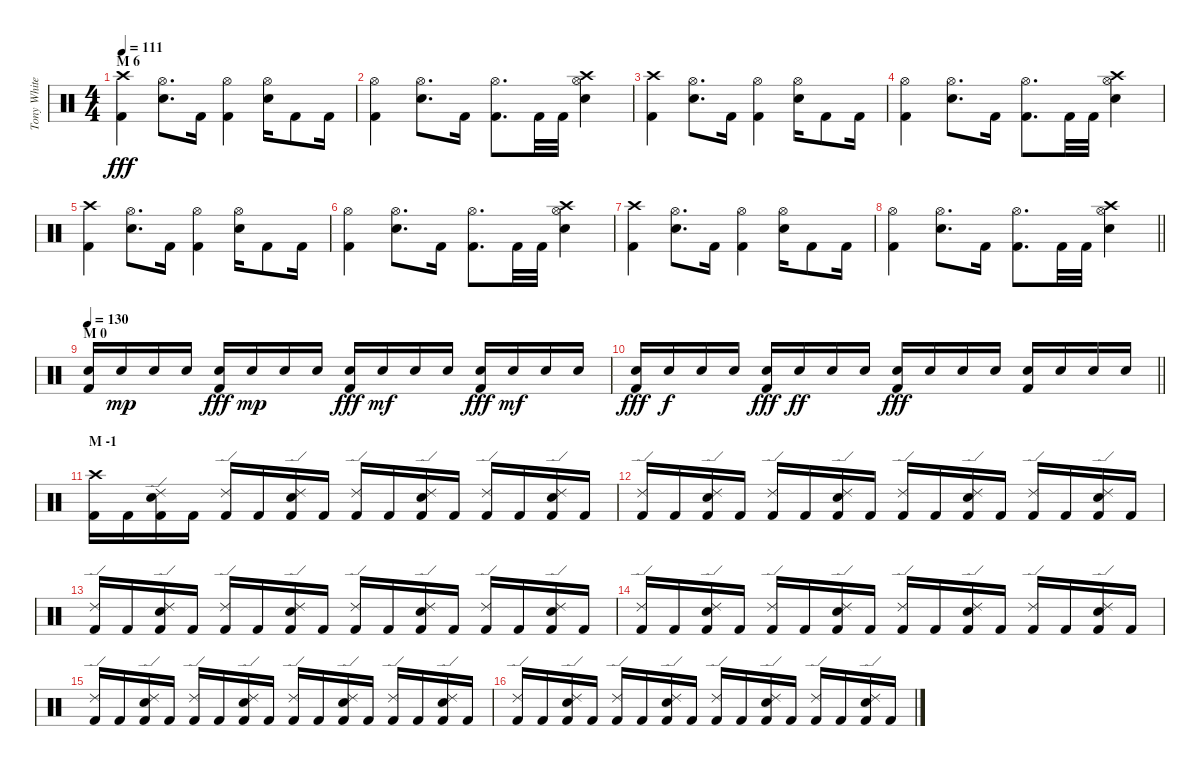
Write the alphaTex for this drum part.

\track ("Tony White" "Tony White") {instrument percussion}
\staff {score}
\articulation defaults
\ts (4 4)
\section ("" "M 6")
\tempo 111
\clef neutral
\ks c
("Crash high (hit)" "Kick (hit) 2").4{dy fff} ("Hi-Hat (open)" "Electric Snare (hit)").8{d} "Kick (hit) 2".16 ("Hi-Hat (open)" "Kick (hit) 2").4 ("Hi-Hat (open)" "Electric Snare (hit)").16 "Kick (hit) 2".8 "Kick (hit) 2".16 |
("Hi-Hat (open)" "Kick (hit) 2").4 ("Hi-Hat (open)" "Electric Snare (hit)").8{d} "Kick (hit) 2".16 ("Hi-Hat (open)" "Kick (hit) 2").8{d} "Kick (hit) 2".32 "Kick (hit) 2".32 ("Crash high (hit)" "Hi-Hat (open)" "Electric Snare (hit)").4 |
("Crash high (hit)" "Kick (hit) 2").4 ("Hi-Hat (open)" "Electric Snare (hit)").8{d} "Kick (hit) 2".16 ("Hi-Hat (open)" "Kick (hit) 2").4 ("Hi-Hat (open)" "Electric Snare (hit)").16 "Kick (hit) 2".8 "Kick (hit) 2".16 |
("Hi-Hat (open)" "Kick (hit) 2").4 ("Hi-Hat (open)" "Electric Snare (hit)").8{d} "Kick (hit) 2".16 ("Hi-Hat (open)" "Kick (hit) 2").8{d} "Kick (hit) 2".32 "Kick (hit) 2".32 ("Crash high (hit)" "Hi-Hat (open)" "Electric Snare (hit)").4 |
("Crash high (hit)" "Kick (hit) 2").4 ("Hi-Hat (open)" "Electric Snare (hit)").8{d} "Kick (hit) 2".16 ("Hi-Hat (open)" "Kick (hit) 2").4 ("Hi-Hat (open)" "Electric Snare (hit)").16 "Kick (hit) 2".8 "Kick (hit) 2".16 |
("Hi-Hat (open)" "Kick (hit) 2").4 ("Hi-Hat (open)" "Electric Snare (hit)").8{d} "Kick (hit) 2".16 ("Hi-Hat (open)" "Kick (hit) 2").8{d} "Kick (hit) 2".32 "Kick (hit) 2".32 ("Crash high (hit)" "Hi-Hat (open)" "Electric Snare (hit)").4 |
("Crash high (hit)" "Kick (hit) 2").4 ("Hi-Hat (open)" "Electric Snare (hit)").8{d} "Kick (hit) 2".16 ("Hi-Hat (open)" "Kick (hit) 2").4 ("Hi-Hat (open)" "Electric Snare (hit)").16 "Kick (hit) 2".8 "Kick (hit) 2".16 |
\barLineRight lightlight
("Hi-Hat (open)" "Kick (hit) 2").4 ("Hi-Hat (open)" "Electric Snare (hit)").8{d} "Kick (hit) 2".16 ("Hi-Hat (open)" "Kick (hit) 2").8{d} "Kick (hit) 2".32 "Kick (hit) 2".32 ("Crash high (hit)" "Hi-Hat (open)" "Electric Snare (hit)").4 |
\section ("" "M 0")
\tempo 130
("Electric Snare (hit)" "Kick (hit) 2").16 "Electric Snare (hit)".16{dy mp} "Electric Snare (hit)".16 "Electric Snare (hit)".16 ("Electric Snare (hit)" "Kick (hit) 2").16{dy fff} "Electric Snare (hit)".16{dy mp} "Electric Snare (hit)".16 "Electric Snare (hit)".16 ("Electric Snare (hit)" "Kick (hit) 2").16{dy fff} "Electric Snare (hit)".16{dy mf} "Electric Snare (hit)".16 "Electric Snare (hit)".16 ("Electric Snare (hit)" "Kick (hit) 2").16{dy fff} "Electric Snare (hit)".16{dy mf} "Electric Snare (hit)".16 "Electric Snare (hit)".16 |
\barLineRight lightlight
("Electric Snare (hit)" "Kick (hit) 2").16{dy fff} "Electric Snare (hit)".16{dy f} "Electric Snare (hit)".16 "Electric Snare (hit)".16 ("Electric Snare (hit)" "Kick (hit) 2").16{dy fff} "Electric Snare (hit)".16{dy ff} "Electric Snare (hit)".16 "Electric Snare (hit)".16 ("Electric Snare (hit)" "Kick (hit) 2").16{dy fff} "Electric Snare (hit)".16 "Electric Snare (hit)".16 "Electric Snare (hit)".16 ("Electric Snare (hit)" "Kick (hit) 2").16 "Electric Snare (hit)".16 "Electric Snare (hit)".16 "Electric Snare (hit)".16 |
\section ("" "M -1")
("Crash high (hit)" "Kick (hit) 2").16 "Kick (hit) 2".16 ("Ride (edge) 2" "Electric Snare (hit)" "Kick (hit) 2").16 "Kick (hit) 2".16 ("Ride (edge) 2" "Kick (hit) 2").16 "Kick (hit) 2".16 ("Ride (edge) 2" "Electric Snare (hit)" "Kick (hit) 2").16 "Kick (hit) 2".16 ("Ride (edge) 2" "Kick (hit) 2").16 "Kick (hit) 2".16 ("Ride (edge) 2" "Electric Snare (hit)" "Kick (hit) 2").16 "Kick (hit) 2".16 ("Ride (edge) 2" "Kick (hit) 2").16 "Kick (hit) 2".16 ("Ride (edge) 2" "Electric Snare (hit)" "Kick (hit) 2").16 "Kick (hit) 2".16 |
("Ride (edge) 2" "Kick (hit) 2").16 "Kick (hit) 2".16 ("Ride (edge) 2" "Electric Snare (hit)" "Kick (hit) 2").16 "Kick (hit) 2".16 ("Ride (edge) 2" "Kick (hit) 2").16 "Kick (hit) 2".16 ("Ride (edge) 2" "Electric Snare (hit)" "Kick (hit) 2").16 "Kick (hit) 2".16 ("Ride (edge) 2" "Kick (hit) 2").16 "Kick (hit) 2".16 ("Ride (edge) 2" "Electric Snare (hit)" "Kick (hit) 2").16 "Kick (hit) 2".16 ("Ride (edge) 2" "Kick (hit) 2").16 "Kick (hit) 2".16 ("Ride (edge) 2" "Electric Snare (hit)" "Kick (hit) 2").16 "Kick (hit) 2".16 |
("Ride (edge) 2" "Kick (hit) 2").16 "Kick (hit) 2".16 ("Ride (edge) 2" "Electric Snare (hit)" "Kick (hit) 2").16 "Kick (hit) 2".16 ("Ride (edge) 2" "Kick (hit) 2").16 "Kick (hit) 2".16 ("Ride (edge) 2" "Electric Snare (hit)" "Kick (hit) 2").16 "Kick (hit) 2".16 ("Ride (edge) 2" "Kick (hit) 2").16 "Kick (hit) 2".16 ("Ride (edge) 2" "Electric Snare (hit)" "Kick (hit) 2").16 "Kick (hit) 2".16 ("Ride (edge) 2" "Kick (hit) 2").16 "Kick (hit) 2".16 ("Ride (edge) 2" "Electric Snare (hit)" "Kick (hit) 2").16 "Kick (hit) 2".16 |
("Ride (edge) 2" "Kick (hit) 2").16 "Kick (hit) 2".16 ("Ride (edge) 2" "Electric Snare (hit)" "Kick (hit) 2").16 "Kick (hit) 2".16 ("Ride (edge) 2" "Kick (hit) 2").16 "Kick (hit) 2".16 ("Ride (edge) 2" "Electric Snare (hit)" "Kick (hit) 2").16 "Kick (hit) 2".16 ("Ride (edge) 2" "Kick (hit) 2").16 "Kick (hit) 2".16 ("Ride (edge) 2" "Electric Snare (hit)" "Kick (hit) 2").16 "Kick (hit) 2".16 ("Ride (edge) 2" "Kick (hit) 2").16 "Kick (hit) 2".16 ("Ride (edge) 2" "Electric Snare (hit)" "Kick (hit) 2").16 "Kick (hit) 2".16 |
("Ride (edge) 2" "Kick (hit) 2").16 "Kick (hit) 2".16 ("Ride (edge) 2" "Electric Snare (hit)" "Kick (hit) 2").16 "Kick (hit) 2".16 ("Ride (edge) 2" "Kick (hit) 2").16 "Kick (hit) 2".16 ("Ride (edge) 2" "Electric Snare (hit)" "Kick (hit) 2").16 "Kick (hit) 2".16 ("Ride (edge) 2" "Kick (hit) 2").16 "Kick (hit) 2".16 ("Ride (edge) 2" "Electric Snare (hit)" "Kick (hit) 2").16 "Kick (hit) 2".16 ("Ride (edge) 2" "Kick (hit) 2").16 "Kick (hit) 2".16 ("Ride (edge) 2" "Electric Snare (hit)" "Kick (hit) 2").16 "Kick (hit) 2".16 |
("Ride (edge) 2" "Kick (hit) 2").16 "Kick (hit) 2".16 ("Ride (edge) 2" "Electric Snare (hit)" "Kick (hit) 2").16 "Kick (hit) 2".16 ("Ride (edge) 2" "Kick (hit) 2").16 "Kick (hit) 2".16 ("Ride (edge) 2" "Electric Snare (hit)" "Kick (hit) 2").16 "Kick (hit) 2".16 ("Ride (edge) 2" "Kick (hit) 2").16 "Kick (hit) 2".16 ("Ride (edge) 2" "Electric Snare (hit)" "Kick (hit) 2").16 "Kick (hit) 2".16 ("Ride (edge) 2" "Kick (hit) 2").16 "Kick (hit) 2".16 ("Ride (edge) 2" "Electric Snare (hit)" "Kick (hit) 2").16 "Kick (hit) 2".16
